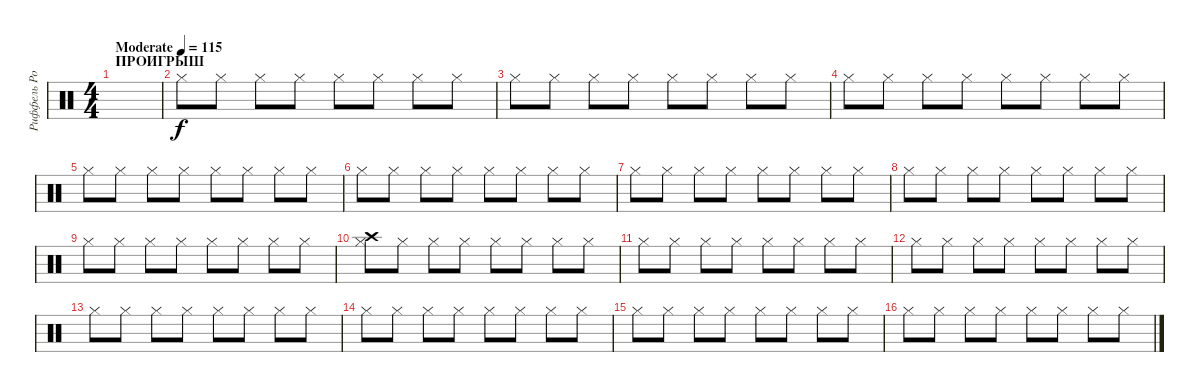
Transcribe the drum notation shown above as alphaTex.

\track ("Риффель Роман (хэты)" "Риффель Ро") {instrument percussion}
\staff {score}
\articulation defaults
\ts (4 4)
\section ("" "ПРОИГРЫШ")
\tempo (115 "Moderate")
\clef neutral
\ks c
|
"Hi-Hat (closed)".8 "Hi-Hat (closed)".8 "Hi-Hat (closed)".8 "Hi-Hat (closed)".8 "Hi-Hat (closed)".8 "Hi-Hat (closed)".8 "Hi-Hat (closed)".8 "Hi-Hat (closed)".8 |
"Hi-Hat (closed)".8 "Hi-Hat (closed)".8 "Hi-Hat (closed)".8 "Hi-Hat (closed)".8 "Hi-Hat (closed)".8 "Hi-Hat (closed)".8 "Hi-Hat (closed)".8 "Hi-Hat (closed)".8 |
"Hi-Hat (closed)".8 "Hi-Hat (closed)".8 "Hi-Hat (closed)".8 "Hi-Hat (closed)".8 "Hi-Hat (closed)".8 "Hi-Hat (closed)".8 "Hi-Hat (closed)".8 "Hi-Hat (closed)".8 |
"Hi-Hat (closed)".8 "Hi-Hat (closed)".8 "Hi-Hat (closed)".8 "Hi-Hat (closed)".8 "Hi-Hat (closed)".8 "Hi-Hat (closed)".8 "Hi-Hat (closed)".8 "Hi-Hat (closed)".8 |
"Hi-Hat (closed)".8 "Hi-Hat (closed)".8 "Hi-Hat (closed)".8 "Hi-Hat (closed)".8 "Hi-Hat (closed)".8 "Hi-Hat (closed)".8 "Hi-Hat (closed)".8 "Hi-Hat (closed)".8 |
"Hi-Hat (closed)".8 "Hi-Hat (closed)".8 "Hi-Hat (closed)".8 "Hi-Hat (closed)".8 "Hi-Hat (closed)".8 "Hi-Hat (closed)".8 "Hi-Hat (closed)".8 "Hi-Hat (closed)".8 |
"Hi-Hat (closed)".8 "Hi-Hat (closed)".8 "Hi-Hat (closed)".8 "Hi-Hat (closed)".8 "Hi-Hat (closed)".8 "Hi-Hat (closed)".8 "Hi-Hat (closed)".8 "Hi-Hat (closed)".8 |
"Hi-Hat (closed)".8 "Hi-Hat (closed)".8 "Hi-Hat (closed)".8 "Hi-Hat (closed)".8 "Hi-Hat (closed)".8 "Hi-Hat (closed)".8 "Hi-Hat (closed)".8 "Hi-Hat (closed)".8 |
("Crash high (hit)" "Hi-Hat (closed)").8 "Hi-Hat (closed)".8 "Hi-Hat (closed)".8 "Hi-Hat (closed)".8 "Hi-Hat (closed)".8 "Hi-Hat (closed)".8 "Hi-Hat (closed)".8 "Hi-Hat (closed)".8 |
"Hi-Hat (closed)".8 "Hi-Hat (closed)".8 "Hi-Hat (closed)".8 "Hi-Hat (closed)".8 "Hi-Hat (closed)".8 "Hi-Hat (closed)".8 "Hi-Hat (closed)".8 "Hi-Hat (closed)".8 |
"Hi-Hat (closed)".8 "Hi-Hat (closed)".8 "Hi-Hat (closed)".8 "Hi-Hat (closed)".8 "Hi-Hat (closed)".8 "Hi-Hat (closed)".8 "Hi-Hat (closed)".8 "Hi-Hat (closed)".8 |
"Hi-Hat (closed)".8 "Hi-Hat (closed)".8 "Hi-Hat (closed)".8 "Hi-Hat (closed)".8 "Hi-Hat (closed)".8 "Hi-Hat (closed)".8 "Hi-Hat (closed)".8 "Hi-Hat (closed)".8 |
"Hi-Hat (closed)".8 "Hi-Hat (closed)".8 "Hi-Hat (closed)".8 "Hi-Hat (closed)".8 "Hi-Hat (closed)".8 "Hi-Hat (closed)".8 "Hi-Hat (closed)".8 "Hi-Hat (closed)".8 |
"Hi-Hat (closed)".8 "Hi-Hat (closed)".8 "Hi-Hat (closed)".8 "Hi-Hat (closed)".8 "Hi-Hat (closed)".8 "Hi-Hat (closed)".8 "Hi-Hat (closed)".8 "Hi-Hat (closed)".8 |
"Hi-Hat (closed)".8 "Hi-Hat (closed)".8 "Hi-Hat (closed)".8 "Hi-Hat (closed)".8 "Hi-Hat (closed)".8 "Hi-Hat (closed)".8 "Hi-Hat (closed)".8 "Hi-Hat (closed)".8
